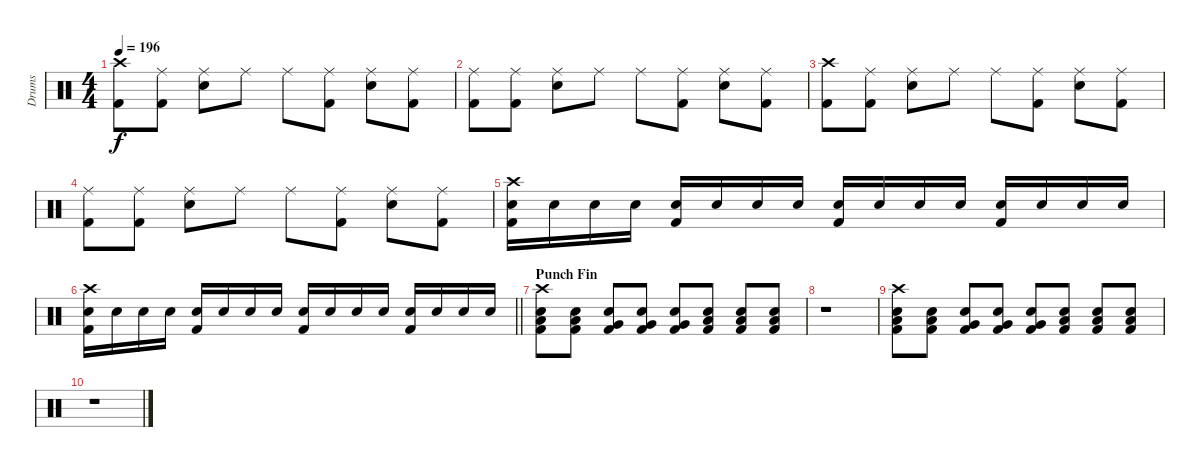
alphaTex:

\track ("Drums" "Drums") {instrument percussion}
\staff {score}
\articulation defaults
\ts (4 4)
\tempo 196
\clef neutral
\ks c
("Crash high (hit)" "Kick (hit) 2").8{dy f} ("Ride (middle)" "Kick (hit) 2").8 ("Ride (middle)" "Electric Snare (hit)").8 "Ride (middle)".8 "Ride (middle)".8 ("Ride (middle)" "Kick (hit) 2").8 ("Ride (middle)" "Electric Snare (hit)").8 ("Ride (middle)" "Kick (hit) 2").8 |
("Ride (middle)" "Kick (hit) 2").8 ("Ride (middle)" "Kick (hit) 2").8 ("Ride (middle)" "Electric Snare (hit)").8 "Ride (middle)".8 "Ride (middle)".8 ("Ride (middle)" "Kick (hit) 2").8 ("Ride (middle)" "Electric Snare (hit)").8 ("Ride (middle)" "Kick (hit) 2").8 |
("Crash high (hit)" "Kick (hit) 2").8 ("Ride (middle)" "Kick (hit) 2").8 ("Ride (middle)" "Electric Snare (hit)").8 "Ride (middle)".8 "Ride (middle)".8 ("Ride (middle)" "Kick (hit) 2").8 ("Ride (middle)" "Electric Snare (hit)").8 ("Ride (middle)" "Kick (hit) 2").8 |
("Ride (middle)" "Kick (hit) 2").8 ("Ride (middle)" "Kick (hit) 2").8 ("Ride (middle)" "Electric Snare (hit)").8 "Ride (middle)".8 "Ride (middle)".8 ("Ride (middle)" "Kick (hit) 2").8 ("Ride (middle)" "Electric Snare (hit)").8 ("Ride (middle)" "Kick (hit) 2").8 |
("Crash high (hit)" "Electric Snare (hit)" "Kick (hit) 2").16 "Electric Snare (hit)".16 "Electric Snare (hit)".16 "Electric Snare (hit)".16 ("Electric Snare (hit)" "Kick (hit) 2").16 "Electric Snare (hit)".16 "Electric Snare (hit)".16 "Electric Snare (hit)".16 ("Electric Snare (hit)" "Kick (hit) 2").16 "Electric Snare (hit)".16 "Electric Snare (hit)".16 "Electric Snare (hit)".16 ("Electric Snare (hit)" "Kick (hit) 2").16 "Electric Snare (hit)".16 "Electric Snare (hit)".16 "Electric Snare (hit)".16 |
\barLineRight lightlight
("Crash high (hit)" "Electric Snare (hit)" "Kick (hit) 2").16 "Electric Snare (hit)".16 "Electric Snare (hit)".16 "Electric Snare (hit)".16 ("Electric Snare (hit)" "Kick (hit) 2").16 "Electric Snare (hit)".16 "Electric Snare (hit)".16 "Electric Snare (hit)".16 ("Electric Snare (hit)" "Kick (hit) 2").16 "Electric Snare (hit)".16 "Electric Snare (hit)".16 "Electric Snare (hit)".16 ("Electric Snare (hit)" "Kick (hit) 2").16 "Electric Snare (hit)".16 "Electric Snare (hit)".16 "Electric Snare (hit)".16 |
\section ("" "Punch Fin")
("Crash high (hit)" "Low Floor Tom (hit)" "Electric Snare (hit)" "Kick (hit) 2").8 ("Low Floor Tom (hit)" "Electric Snare (hit)" "Kick (hit) 2").8 ("Very Low Tom (hit)" "Electric Snare (hit)" "Kick (hit) 2").8 ("Very Low Tom (hit)" "Electric Snare (hit)" "Kick (hit) 2").8 ("Very Low Tom (hit)" "Electric Snare (hit)" "Kick (hit) 2").8 ("Low Tom (hit)" "Electric Snare (hit)" "Kick (hit) 2").8 ("Low Tom (hit)" "Electric Snare (hit)" "Kick (hit) 2").8 ("Low Tom (hit)" "Electric Snare (hit)" "Kick (hit) 2").8 |
r.1 |
("Crash high (hit)" "Low Floor Tom (hit)" "Electric Snare (hit)" "Kick (hit) 2").8 ("Low Floor Tom (hit)" "Electric Snare (hit)" "Kick (hit) 2").8 ("Very Low Tom (hit)" "Electric Snare (hit)" "Kick (hit) 2").8 ("Very Low Tom (hit)" "Electric Snare (hit)" "Kick (hit) 2").8 ("Very Low Tom (hit)" "Electric Snare (hit)" "Kick (hit) 2").8 ("Low Tom (hit)" "Electric Snare (hit)" "Kick (hit) 2").8 ("Low Tom (hit)" "Electric Snare (hit)" "Kick (hit) 2").8 ("Low Tom (hit)" "Electric Snare (hit)" "Kick (hit) 2").8 |
r.1
